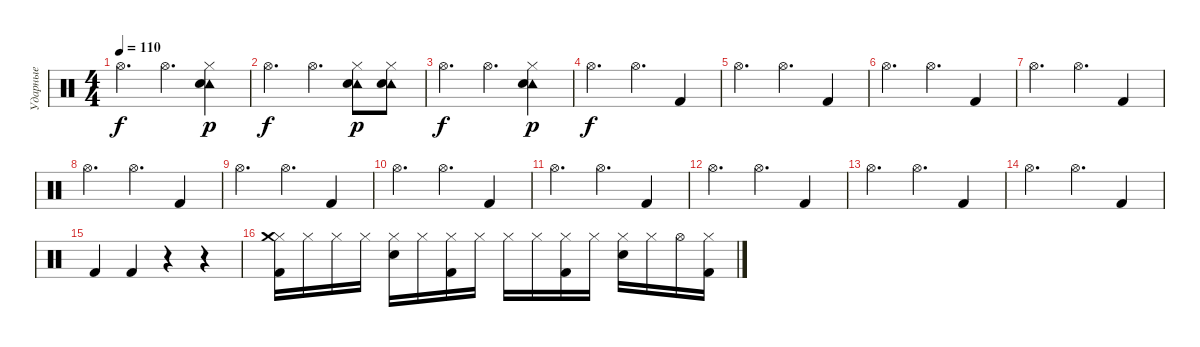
\track ("Ударные" "Ударные") {instrument percussion}
\staff {score}
\articulation defaults
\ts (4 4)
\tempo 110
\clef neutral
\ks c "Hi-Hat (open)".4{d dy f} "Hi-Hat (open)".4{d}
("Tambourine (hit)" "Metronome (bell)" "Hi-Hat (closed)").4{dy p} |
"Hi-Hat (open)".4{d dy f} "Hi-Hat (open)".4{d} ("Tambourine (hit)" "Metronome (bell)" "Hi-Hat (closed)").8{dy p} ("Tambourine (hit)" "Metronome (bell)" "Hi-Hat (closed)").8 |
"Hi-Hat (open)".4{d dy f} "Hi-Hat (open)".4{d} ("Tambourine (hit)" "Metronome (bell)" "Hi-Hat (closed)").4{dy p} |
"Hi-Hat (open)".4{d dy f} "Hi-Hat (open)".4{d} "Kick (hit) 2".4 |
"Hi-Hat (open)".4{d} "Hi-Hat (open)".4{d} "Kick (hit) 2".4 |
"Hi-Hat (open)".4{d} "Hi-Hat (open)".4{d} "Kick (hit) 2".4 |
"Hi-Hat (open)".4{d} "Hi-Hat (open)".4{d} "Kick (hit) 2".4 |
"Hi-Hat (open)".4{d} "Hi-Hat (open)".4{d} "Kick (hit) 2".4 |
"Hi-Hat (open)".4{d} "Hi-Hat (open)".4{d} "Kick (hit) 2".4 |
"Hi-Hat (open)".4{d} "Hi-Hat (open)".4{d} "Kick (hit) 2".4 |
"Hi-Hat (open)".4{d} "Hi-Hat (open)".4{d} "Kick (hit) 2".4 |
"Hi-Hat (open)".4{d} "Hi-Hat (open)".4{d} "Kick (hit) 2".4 |
"Hi-Hat (open)".4{d} "Hi-Hat (open)".4{d} "Kick (hit) 2".4 |
"Hi-Hat (open)".4{d} "Hi-Hat (open)".4{d} "Kick (hit) 2".4 |
"Kick (hit) 2".4 "Kick (hit) 2".4 r.4 r.4 |
("Hi-Hat (closed)" "Kick (hit) 2" "Crash medium (hit)").16 "Hi-Hat (closed)".16 "Hi-Hat (closed)".16 "Hi-Hat (closed)".16 ("Hi-Hat (closed)" "Electric Snare (hit)").16 "Hi-Hat (closed)".16 ("Hi-Hat (closed)" "Kick (hit) 2").16 "Hi-Hat (closed)".16 "Hi-Hat (closed)".16 "Hi-Hat (closed)".16 ("Hi-Hat (closed)" "Kick (hit) 2").16 "Hi-Hat (closed)".16 ("Hi-Hat (closed)" "Electric Snare (hit)").16 "Hi-Hat (closed)".16 "Hi-Hat (open)".16 ("Hi-Hat (closed)" "Kick (hit) 2").16
